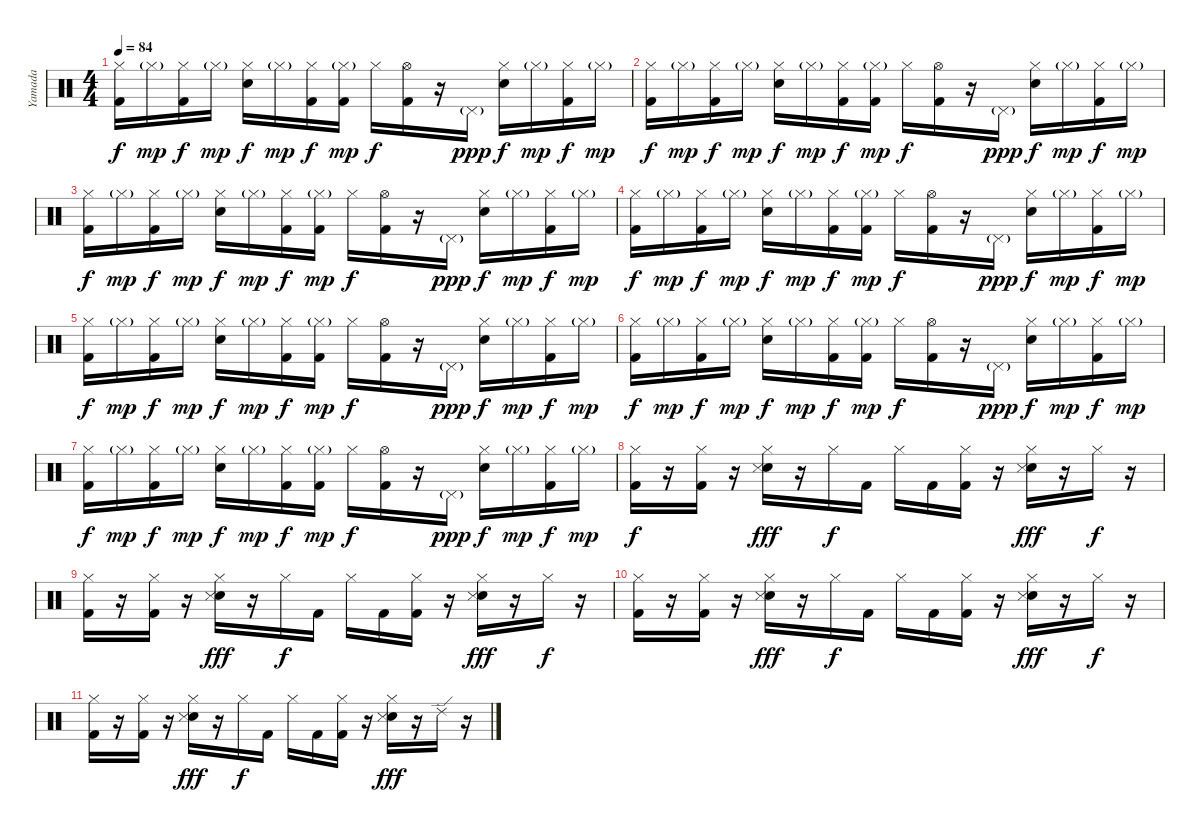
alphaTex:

\track ("Yamada" "Yamada") {instrument percussion}
\staff {score}
\articulation defaults
\ts (4 4)
\tempo 84
\clef neutral
\ks c
("Hi-Hat (closed)" "Kick (hit) 2").16{dy f} "Hi-Hat (closed)"{g}.16{dy mp} ("Hi-Hat (closed)" "Kick (hit) 2").16{dy f} "Hi-Hat (closed)"{g}.16{dy mp} ("Hi-Hat (closed)" "Electric Snare (hit)").16{dy f} "Hi-Hat (closed)"{g}.16{dy mp} ("Hi-Hat (closed)" "Kick (hit) 2").16{dy f} ("Hi-Hat (closed)"{g} "Kick (hit) 2").16{dy mp} "Hi-Hat (closed)".16{dy f} ("Hi-Hat (open)" "Kick (hit) 2").16 r.16 "Pedal Hi-Hat (hit)"{g}.16{dy ppp} ("Hi-Hat (closed)" "Electric Snare (hit)").16{dy f} "Hi-Hat (closed)"{g}.16{dy mp} ("Hi-Hat (closed)" "Kick (hit) 2").16{dy f} "Hi-Hat (closed)"{g}.16{dy mp} |
("Hi-Hat (closed)" "Kick (hit) 2").16{dy f} "Hi-Hat (closed)"{g}.16{dy mp} ("Hi-Hat (closed)" "Kick (hit) 2").16{dy f} "Hi-Hat (closed)"{g}.16{dy mp} ("Hi-Hat (closed)" "Electric Snare (hit)").16{dy f} "Hi-Hat (closed)"{g}.16{dy mp} ("Hi-Hat (closed)" "Kick (hit) 2").16{dy f} ("Hi-Hat (closed)"{g} "Kick (hit) 2").16{dy mp} "Hi-Hat (closed)".16{dy f} ("Hi-Hat (open)" "Kick (hit) 2").16 r.16 "Pedal Hi-Hat (hit)"{g}.16{dy ppp} ("Hi-Hat (closed)" "Electric Snare (hit)").16{dy f} "Hi-Hat (closed)"{g}.16{dy mp} ("Hi-Hat (closed)" "Kick (hit) 2").16{dy f} "Hi-Hat (closed)"{g}.16{dy mp} |
("Hi-Hat (closed)" "Kick (hit) 2").16{dy f} "Hi-Hat (closed)"{g}.16{dy mp} ("Hi-Hat (closed)" "Kick (hit) 2").16{dy f} "Hi-Hat (closed)"{g}.16{dy mp} ("Hi-Hat (closed)" "Electric Snare (hit)").16{dy f} "Hi-Hat (closed)"{g}.16{dy mp} ("Hi-Hat (closed)" "Kick (hit) 2").16{dy f} ("Hi-Hat (closed)"{g} "Kick (hit) 2").16{dy mp} "Hi-Hat (closed)".16{dy f} ("Hi-Hat (open)" "Kick (hit) 2").16 r.16 "Pedal Hi-Hat (hit)"{g}.16{dy ppp} ("Hi-Hat (closed)" "Electric Snare (hit)").16{dy f} "Hi-Hat (closed)"{g}.16{dy mp} ("Hi-Hat (closed)" "Kick (hit) 2").16{dy f} "Hi-Hat (closed)"{g}.16{dy mp} |
("Hi-Hat (closed)" "Kick (hit) 2").16{dy f} "Hi-Hat (closed)"{g}.16{dy mp} ("Hi-Hat (closed)" "Kick (hit) 2").16{dy f} "Hi-Hat (closed)"{g}.16{dy mp} ("Hi-Hat (closed)" "Electric Snare (hit)").16{dy f} "Hi-Hat (closed)"{g}.16{dy mp} ("Hi-Hat (closed)" "Kick (hit) 2").16{dy f} ("Hi-Hat (closed)"{g} "Kick (hit) 2").16{dy mp} "Hi-Hat (closed)".16{dy f} ("Hi-Hat (open)" "Kick (hit) 2").16 r.16 "Pedal Hi-Hat (hit)"{g}.16{dy ppp} ("Hi-Hat (closed)" "Electric Snare (hit)").16{dy f} "Hi-Hat (closed)"{g}.16{dy mp} ("Hi-Hat (closed)" "Kick (hit) 2").16{dy f} "Hi-Hat (closed)"{g}.16{dy mp} |
("Hi-Hat (closed)" "Kick (hit) 2").16{dy f} "Hi-Hat (closed)"{g}.16{dy mp} ("Hi-Hat (closed)" "Kick (hit) 2").16{dy f} "Hi-Hat (closed)"{g}.16{dy mp} ("Hi-Hat (closed)" "Electric Snare (hit)").16{dy f} "Hi-Hat (closed)"{g}.16{dy mp} ("Hi-Hat (closed)" "Kick (hit) 2").16{dy f} ("Hi-Hat (closed)"{g} "Kick (hit) 2").16{dy mp} "Hi-Hat (closed)".16{dy f} ("Hi-Hat (open)" "Kick (hit) 2").16 r.16 "Pedal Hi-Hat (hit)"{g}.16{dy ppp} ("Hi-Hat (closed)" "Electric Snare (hit)").16{dy f} "Hi-Hat (closed)"{g}.16{dy mp} ("Hi-Hat (closed)" "Kick (hit) 2").16{dy f} "Hi-Hat (closed)"{g}.16{dy mp} |
("Hi-Hat (closed)" "Kick (hit) 2").16{dy f} "Hi-Hat (closed)"{g}.16{dy mp} ("Hi-Hat (closed)" "Kick (hit) 2").16{dy f} "Hi-Hat (closed)"{g}.16{dy mp} ("Hi-Hat (closed)" "Electric Snare (hit)").16{dy f} "Hi-Hat (closed)"{g}.16{dy mp} ("Hi-Hat (closed)" "Kick (hit) 2").16{dy f} ("Hi-Hat (closed)"{g} "Kick (hit) 2").16{dy mp} "Hi-Hat (closed)".16{dy f} ("Hi-Hat (open)" "Kick (hit) 2").16 r.16 "Pedal Hi-Hat (hit)"{g}.16{dy ppp} ("Hi-Hat (closed)" "Electric Snare (hit)").16{dy f} "Hi-Hat (closed)"{g}.16{dy mp} ("Hi-Hat (closed)" "Kick (hit) 2").16{dy f} "Hi-Hat (closed)"{g}.16{dy mp} |
("Hi-Hat (closed)" "Kick (hit) 2").16{dy f} "Hi-Hat (closed)"{g}.16{dy mp} ("Hi-Hat (closed)" "Kick (hit) 2").16{dy f} "Hi-Hat (closed)"{g}.16{dy mp} ("Hi-Hat (closed)" "Electric Snare (hit)").16{dy f} "Hi-Hat (closed)"{g}.16{dy mp} ("Hi-Hat (closed)" "Kick (hit) 2").16{dy f} ("Hi-Hat (closed)"{g} "Kick (hit) 2").16{dy mp} "Hi-Hat (closed)".16{dy f} ("Hi-Hat (open)" "Kick (hit) 2").16 r.16 "Pedal Hi-Hat (hit)"{g}.16{dy ppp} ("Hi-Hat (closed)" "Electric Snare (hit)").16{dy f} "Hi-Hat (closed)"{g}.16{dy mp} ("Hi-Hat (closed)" "Kick (hit) 2").16{dy f} "Hi-Hat (closed)"{g}.16{dy mp} |
("Hi-Hat (closed)" "Kick (hit) 2").16{dy f} r.16 ("Hi-Hat (closed)" "Kick (hit) 2").16 r.16 ("Hi-Hat (closed)" "Electric Snare (hit)" "Snare (side stick) 3").16{dy fff} r.16 "Hi-Hat (closed)".16{dy f} "Kick (hit) 2".16 "Hi-Hat (closed)".16 "Kick (hit) 2".16 ("Hi-Hat (closed)" "Kick (hit) 2").16 r.16 ("Hi-Hat (closed)" "Electric Snare (hit)" "Snare (side stick) 3").16{dy fff} r.16 "Hi-Hat (closed)".16{dy f} r.16 |
("Hi-Hat (closed)" "Kick (hit) 2").16 r.16 ("Hi-Hat (closed)" "Kick (hit) 2").16 r.16 ("Hi-Hat (closed)" "Electric Snare (hit)" "Snare (side stick) 3").16{dy fff} r.16 "Hi-Hat (closed)".16{dy f} "Kick (hit) 2".16 "Hi-Hat (closed)".16 "Kick (hit) 2".16 ("Hi-Hat (closed)" "Kick (hit) 2").16 r.16 ("Hi-Hat (closed)" "Electric Snare (hit)" "Snare (side stick) 3").16{dy fff} r.16 "Hi-Hat (closed)".16{dy f} r.16 |
("Hi-Hat (closed)" "Kick (hit) 2").16 r.16 ("Hi-Hat (closed)" "Kick (hit) 2").16 r.16 ("Hi-Hat (closed)" "Electric Snare (hit)" "Snare (side stick) 3").16{dy fff} r.16 "Hi-Hat (closed)".16{dy f} "Kick (hit) 2".16 "Hi-Hat (closed)".16 "Kick (hit) 2".16 ("Hi-Hat (closed)" "Kick (hit) 2").16 r.16 ("Hi-Hat (closed)" "Electric Snare (hit)" "Snare (side stick) 3").16{dy fff} r.16 "Hi-Hat (closed)".16{dy f} r.16 |
("Hi-Hat (closed)" "Kick (hit) 2").16 r.16 ("Hi-Hat (closed)" "Kick (hit) 2").16 r.16 ("Hi-Hat (closed)" "Electric Snare (hit)" "Snare (side stick) 3").16{dy fff} r.16 "Hi-Hat (closed)".16{dy f} "Kick (hit) 2".16 "Hi-Hat (closed)".16 "Kick (hit) 2".16 ("Hi-Hat (closed)" "Kick (hit) 2").16 r.16 ("Hi-Hat (closed)" "Electric Snare (hit)" "Snare (side stick) 3").16{dy fff} r.16 "Ride (edge) 2".16 r.16
